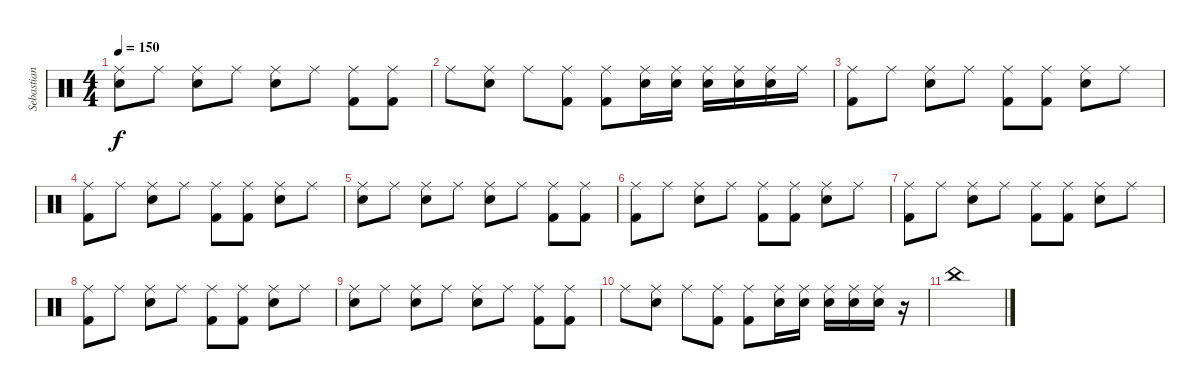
\track ("Sebastian" "Sebastian") {instrument percussion}
\staff {score}
\articulation defaults
\ts (4 4)
\tempo 150
\clef neutral
\ks c
("Electric Snare (hit)" "Ride (middle)").8{dy f} "Ride (middle)".8 ("Electric Snare (hit)" "Ride (middle)").8 "Ride (middle)".8 ("Electric Snare (hit)" "Ride (middle)").8 "Ride (middle)".8 ("Kick (hit) 2" "Ride (middle)").8 ("Kick (hit) 2" "Ride (middle)").8 |
"Ride (middle)".8 ("Electric Snare (hit)" "Ride (middle)").8 "Ride (middle)".8 ("Kick (hit) 2" "Ride (middle)").8 ("Kick (hit) 2" "Ride (middle)").8 ("Electric Snare (hit)" "Ride (middle)").16 ("Electric Snare (hit)" "Ride (middle)").16 ("Electric Snare (hit)" "Ride (middle)").16 ("Electric Snare (hit)" "Ride (middle)").16 ("Electric Snare (hit)" "Ride (middle)").16 "Ride (middle)".16 |
("Kick (hit) 2" "Ride (middle)").8 "Ride (middle)".8 ("Electric Snare (hit)" "Ride (middle)").8 "Ride (middle)".8 ("Kick (hit) 2" "Ride (middle)").8 ("Kick (hit) 2" "Ride (middle)").8 ("Electric Snare (hit)" "Ride (middle)").8 "Ride (middle)".8 |
("Kick (hit) 2" "Ride (middle)").8 "Ride (middle)".8 ("Electric Snare (hit)" "Ride (middle)").8 "Ride (middle)".8 ("Kick (hit) 2" "Ride (middle)").8 ("Kick (hit) 2" "Ride (middle)").8 ("Electric Snare (hit)" "Ride (middle)").8 "Ride (middle)".8 |
("Electric Snare (hit)" "Ride (middle)").8 "Ride (middle)".8 ("Electric Snare (hit)" "Ride (middle)").8 "Ride (middle)".8 ("Electric Snare (hit)" "Ride (middle)").8 "Ride (middle)".8 ("Kick (hit) 2" "Ride (middle)").8 ("Kick (hit) 2" "Ride (middle)").8 |
("Kick (hit) 2" "Ride (middle)").8 "Ride (middle)".8 ("Electric Snare (hit)" "Ride (middle)").8 "Ride (middle)".8 ("Kick (hit) 2" "Ride (middle)").8 ("Kick (hit) 2" "Ride (middle)").8 ("Electric Snare (hit)" "Ride (middle)").8 "Ride (middle)".8 |
("Kick (hit) 2" "Ride (middle)").8 "Ride (middle)".8 ("Electric Snare (hit)" "Ride (middle)").8 "Ride (middle)".8 ("Kick (hit) 2" "Ride (middle)").8 ("Kick (hit) 2" "Ride (middle)").8 ("Electric Snare (hit)" "Ride (middle)").8 "Ride (middle)".8 |
("Kick (hit) 2" "Ride (middle)").8 "Ride (middle)".8 ("Electric Snare (hit)" "Ride (middle)").8 "Ride (middle)".8 ("Kick (hit) 2" "Ride (middle)").8 ("Kick (hit) 2" "Ride (middle)").8 ("Electric Snare (hit)" "Ride (middle)").8 "Ride (middle)".8 |
("Electric Snare (hit)" "Ride (middle)").8 "Ride (middle)".8 ("Electric Snare (hit)" "Ride (middle)").8 "Ride (middle)".8 ("Electric Snare (hit)" "Ride (middle)").8 "Ride (middle)".8 ("Kick (hit) 2" "Ride (middle)").8 ("Kick (hit) 2" "Ride (middle)").8 |
"Ride (middle)".8 ("Electric Snare (hit)" "Ride (middle)").8 "Ride (middle)".8 ("Kick (hit) 2" "Ride (middle)").8 ("Kick (hit) 2" "Ride (middle)").8 ("Electric Snare (hit)" "Ride (middle)").16 ("Electric Snare (hit)" "Ride (middle)").16 ("Electric Snare (hit)" "Ride (middle)").16 ("Electric Snare (hit)" "Ride (middle)").16 ("Electric Snare (hit)" "Ride (middle)").16 r.16 |
"China (hit)".1
